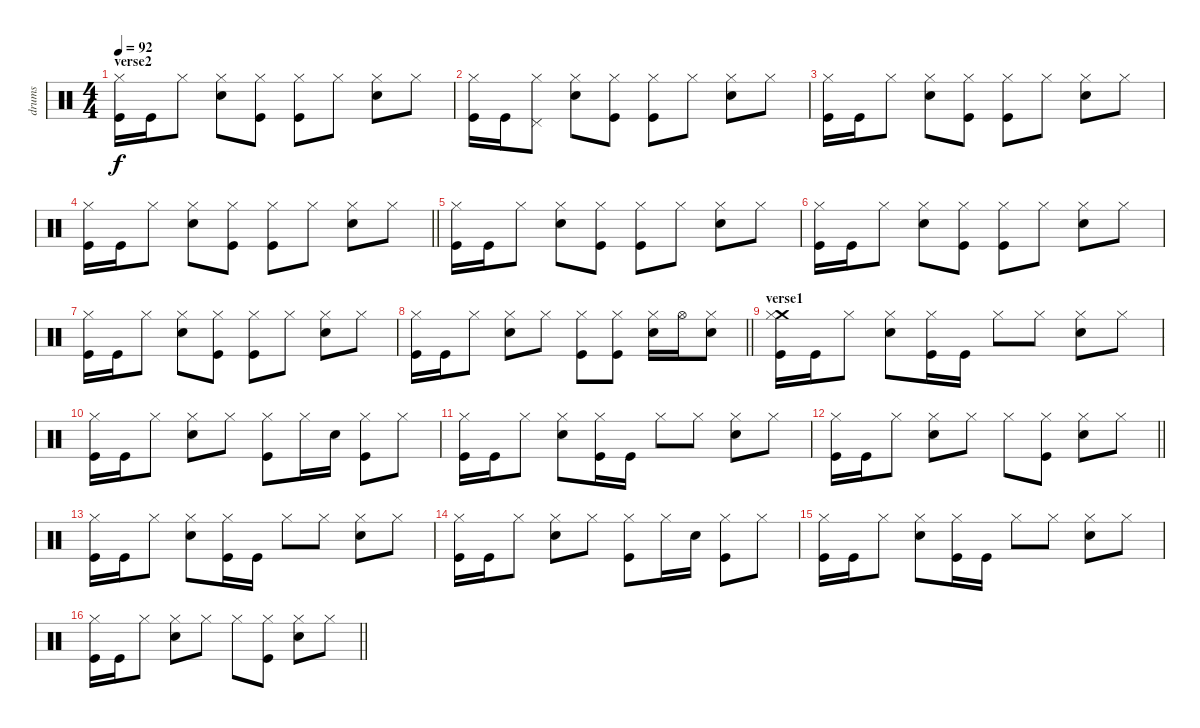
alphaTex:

\track ("drums" "drums") {instrument percussion}
\staff {score}
\articulation defaults
\ts (4 4)
\section ("" "verse2")
\tempo 92
\clef neutral
\ks c
("Hi-Hat (closed)" "Kick (hit)").16{dy f} "Kick (hit)".16 "Hi-Hat (closed)".8 ("Hi-Hat (closed)" "Snare (hit) 2").8 ("Hi-Hat (closed)" "Kick (hit)").8 ("Hi-Hat (closed)" "Kick (hit)").8 "Hi-Hat (closed)".8 ("Hi-Hat (closed)" "Snare (hit) 2").8 "Hi-Hat (closed)".8 |
("Hi-Hat (closed)" "Kick (hit)").16 "Kick (hit)".16 ("Hi-Hat (closed)" "Pedal Hi-Hat (hit)").8 ("Hi-Hat (closed)" "Snare (hit) 2").8 ("Hi-Hat (closed)" "Kick (hit)").8 ("Hi-Hat (closed)" "Kick (hit)").8 "Hi-Hat (closed)".8 ("Hi-Hat (closed)" "Snare (hit) 2").8 "Hi-Hat (closed)".8 |
("Hi-Hat (closed)" "Kick (hit)").16 "Kick (hit)".16 "Hi-Hat (closed)".8 ("Hi-Hat (closed)" "Snare (hit) 2").8 ("Hi-Hat (closed)" "Kick (hit)").8 ("Hi-Hat (closed)" "Kick (hit)").8 "Hi-Hat (closed)".8 ("Hi-Hat (closed)" "Snare (hit) 2").8 "Hi-Hat (closed)".8 |
\barLineRight lightlight
("Hi-Hat (closed)" "Kick (hit)").16 "Kick (hit)".16 "Hi-Hat (closed)".8 ("Hi-Hat (closed)" "Snare (hit) 2").8 ("Hi-Hat (closed)" "Kick (hit)").8 ("Hi-Hat (closed)" "Kick (hit)").8 "Hi-Hat (closed)".8 ("Hi-Hat (closed)" "Snare (hit) 2").8 "Hi-Hat (closed)".8 |
("Hi-Hat (closed)" "Kick (hit)").16 "Kick (hit)".16 "Hi-Hat (closed)".8 ("Hi-Hat (closed)" "Snare (hit) 2").8 ("Hi-Hat (closed)" "Kick (hit)").8 ("Hi-Hat (closed)" "Kick (hit)").8 "Hi-Hat (closed)".8 ("Hi-Hat (closed)" "Snare (hit) 2").8 "Hi-Hat (closed)".8 |
("Hi-Hat (closed)" "Kick (hit)").16 "Kick (hit)".16 "Hi-Hat (closed)".8 ("Hi-Hat (closed)" "Snare (hit) 2").8 ("Hi-Hat (closed)" "Kick (hit)").8 ("Hi-Hat (closed)" "Kick (hit)").8 "Hi-Hat (closed)".8 ("Hi-Hat (closed)" "Snare (hit) 2").8 "Hi-Hat (closed)".8 |
("Hi-Hat (closed)" "Kick (hit)").16 "Kick (hit)".16 "Hi-Hat (closed)".8 ("Hi-Hat (closed)" "Snare (hit) 2").8 ("Hi-Hat (closed)" "Kick (hit)").8 ("Hi-Hat (closed)" "Kick (hit)").8 "Hi-Hat (closed)".8 ("Hi-Hat (closed)" "Snare (hit) 2").8 "Hi-Hat (closed)".8 |
\barLineRight lightlight
("Hi-Hat (closed)" "Kick (hit)").16 "Kick (hit)".16 "Hi-Hat (closed)".8 ("Hi-Hat (closed)" "Snare (hit) 2").8 "Hi-Hat (closed)".8 ("Hi-Hat (closed)" "Kick (hit)").8 ("Hi-Hat (closed)" "Kick (hit)").8 ("Hi-Hat (closed)" "Snare (hit) 2").16 "Hi-Hat (open)".16 ("Hi-Hat (closed)" "Snare (hit) 2").8 |
\section ("" "verse1")
("Crash medium (hit)" "Hi-Hat (closed)" "Kick (hit)").16 "Kick (hit)".16 "Hi-Hat (closed)".8 ("Hi-Hat (closed)" "Snare (hit) 2").8 ("Hi-Hat (closed)" "Kick (hit)").16 "Kick (hit)".16 "Hi-Hat (closed)".8 "Hi-Hat (closed)".8 ("Hi-Hat (closed)" "Snare (hit) 2").8 "Hi-Hat (closed)".8 |
("Hi-Hat (closed)" "Kick (hit)").16 "Kick (hit)".16 "Hi-Hat (closed)".8 ("Hi-Hat (closed)" "Snare (hit) 2").8 "Hi-Hat (closed)".8 ("Hi-Hat (closed)" "Kick (hit)").8 "Hi-Hat (closed)".16 "Snare (hit) 2".16 ("Hi-Hat (closed)" "Kick (hit)").8 "Hi-Hat (closed)".8 |
("Hi-Hat (closed)" "Kick (hit)").16 "Kick (hit)".16 "Hi-Hat (closed)".8 ("Hi-Hat (closed)" "Snare (hit) 2").8 ("Hi-Hat (closed)" "Kick (hit)").16 "Kick (hit)".16 "Hi-Hat (closed)".8 "Hi-Hat (closed)".8 ("Hi-Hat (closed)" "Snare (hit) 2").8 "Hi-Hat (closed)".8 |
\barLineRight lightlight
("Hi-Hat (closed)" "Kick (hit)").16 "Kick (hit)".16 "Hi-Hat (closed)".8 ("Hi-Hat (closed)" "Snare (hit) 2").8 "Hi-Hat (closed)".8 "Hi-Hat (closed)".8 ("Hi-Hat (closed)" "Kick (hit)").8 ("Hi-Hat (closed)" "Snare (hit) 2").8 "Hi-Hat (closed)".8 |
("Hi-Hat (closed)" "Kick (hit)").16 "Kick (hit)".16 "Hi-Hat (closed)".8 ("Hi-Hat (closed)" "Snare (hit) 2").8 ("Hi-Hat (closed)" "Kick (hit)").16 "Kick (hit)".16 "Hi-Hat (closed)".8 "Hi-Hat (closed)".8 ("Hi-Hat (closed)" "Snare (hit) 2").8 "Hi-Hat (closed)".8 |
("Hi-Hat (closed)" "Kick (hit)").16 "Kick (hit)".16 "Hi-Hat (closed)".8 ("Hi-Hat (closed)" "Snare (hit) 2").8 "Hi-Hat (closed)".8 ("Hi-Hat (closed)" "Kick (hit)").8 "Hi-Hat (closed)".16 "Snare (hit) 2".16 ("Hi-Hat (closed)" "Kick (hit)").8 "Hi-Hat (closed)".8 |
("Hi-Hat (closed)" "Kick (hit)").16 "Kick (hit)".16 "Hi-Hat (closed)".8 ("Hi-Hat (closed)" "Snare (hit) 2").8 ("Hi-Hat (closed)" "Kick (hit)").16 "Kick (hit)".16 "Hi-Hat (closed)".8 "Hi-Hat (closed)".8 ("Hi-Hat (closed)" "Snare (hit) 2").8 "Hi-Hat (closed)".8 |
\barLineRight lightlight
("Hi-Hat (closed)" "Kick (hit)").16 "Kick (hit)".16 "Hi-Hat (closed)".8 ("Hi-Hat (closed)" "Snare (hit) 2").8 "Hi-Hat (closed)".8 "Hi-Hat (closed)".8 ("Hi-Hat (closed)" "Kick (hit)").8 ("Hi-Hat (closed)" "Snare (hit) 2").8 "Hi-Hat (closed)".8
